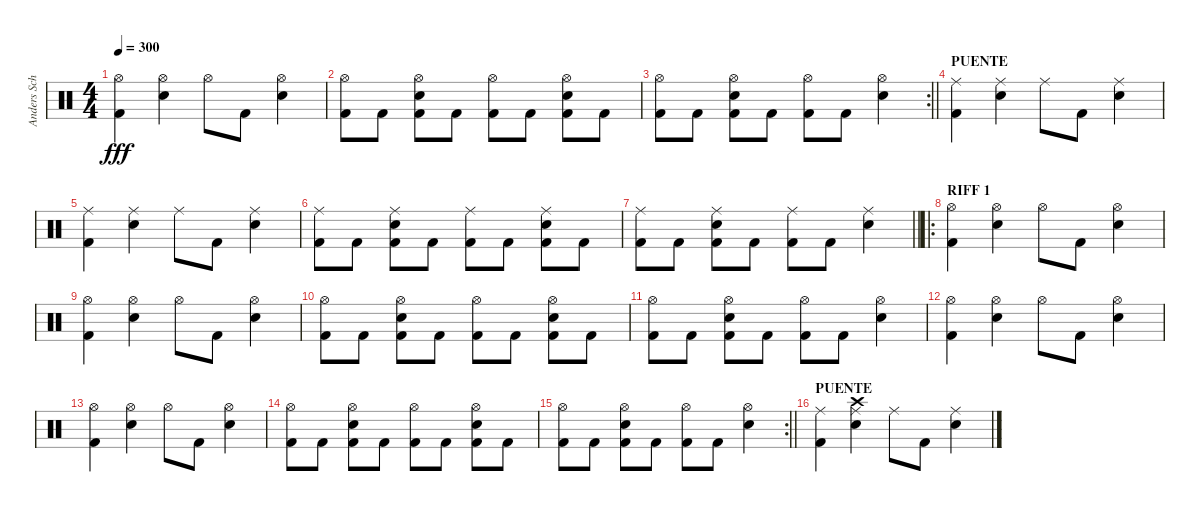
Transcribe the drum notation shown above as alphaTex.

\track ("Anders Schultz" "Anders Sch") {instrument percussion}
\staff {score}
\articulation defaults
\ts (4 4)
\tempo 300
\clef neutral
\ks c
("Hi-Hat (open)" "Kick (hit) 2").4{dy fff} ("Hi-Hat (open)" "Snare (hit) 2").4 "Hi-Hat (open)".8 "Kick (hit) 2".8 ("Hi-Hat (open)" "Snare (hit) 2").4 |
("Hi-Hat (open)" "Kick (hit) 2").8 "Kick (hit) 2".8 ("Hi-Hat (open)" "Snare (hit) 2" "Kick (hit) 2").8 "Kick (hit) 2".8 ("Hi-Hat (open)" "Kick (hit) 2").8 "Kick (hit) 2".8 ("Hi-Hat (open)" "Snare (hit) 2" "Kick (hit) 2").8 "Kick (hit) 2".8 |
\rc 2
\barLineRight lightlight
("Hi-Hat (open)" "Kick (hit) 2").8 "Kick (hit) 2".8 ("Hi-Hat (open)" "Snare (hit) 2" "Kick (hit) 2").8 "Kick (hit) 2".8 ("Hi-Hat (open)" "Kick (hit) 2").8 "Kick (hit) 2".8 ("Hi-Hat (open)" "Snare (hit) 2").4 |
\section ("" "PUENTE")
("Ride (middle)" "Kick (hit) 2").4 ("Ride (middle)" "Snare (hit) 2").4 "Ride (middle)".8 "Kick (hit) 2".8 ("Ride (middle)" "Snare (hit) 2").4 |
("Ride (middle)" "Kick (hit) 2").4 ("Ride (middle)" "Snare (hit) 2").4 "Ride (middle)".8 "Kick (hit) 2".8 ("Ride (middle)" "Snare (hit) 2").4 |
("Ride (middle)" "Kick (hit) 2").8 "Kick (hit) 2".8 ("Ride (middle)" "Snare (hit) 2" "Kick (hit) 2").8 "Kick (hit) 2".8 ("Ride (middle)" "Kick (hit) 2").8 "Kick (hit) 2".8 ("Ride (middle)" "Snare (hit) 2" "Kick (hit) 2").8 "Kick (hit) 2".8 |
\barLineRight lightlight
("Ride (middle)" "Kick (hit) 2").8 "Kick (hit) 2".8 ("Ride (middle)" "Snare (hit) 2" "Kick (hit) 2").8 "Kick (hit) 2".8 ("Ride (middle)" "Kick (hit) 2").8 "Kick (hit) 2".8 ("Ride (middle)" "Snare (hit) 2").4 |
\ro
\section ("" "RIFF 1")
("Hi-Hat (open)" "Kick (hit) 2").4 ("Hi-Hat (open)" "Snare (hit) 2").4 "Hi-Hat (open)".8 "Kick (hit) 2".8 ("Hi-Hat (open)" "Snare (hit) 2").4 |
("Hi-Hat (open)" "Kick (hit) 2").4 ("Hi-Hat (open)" "Snare (hit) 2").4 "Hi-Hat (open)".8 "Kick (hit) 2".8 ("Hi-Hat (open)" "Snare (hit) 2").4 |
("Hi-Hat (open)" "Kick (hit) 2").8 "Kick (hit) 2".8 ("Hi-Hat (open)" "Snare (hit) 2" "Kick (hit) 2").8 "Kick (hit) 2".8 ("Hi-Hat (open)" "Kick (hit) 2").8 "Kick (hit) 2".8 ("Hi-Hat (open)" "Snare (hit) 2" "Kick (hit) 2").8 "Kick (hit) 2".8 |
("Hi-Hat (open)" "Kick (hit) 2").8 "Kick (hit) 2".8 ("Hi-Hat (open)" "Snare (hit) 2" "Kick (hit) 2").8 "Kick (hit) 2".8 ("Hi-Hat (open)" "Kick (hit) 2").8 "Kick (hit) 2".8 ("Hi-Hat (open)" "Snare (hit) 2").4 |
("Hi-Hat (open)" "Kick (hit) 2").4 ("Hi-Hat (open)" "Snare (hit) 2").4 "Hi-Hat (open)".8 "Kick (hit) 2".8 ("Hi-Hat (open)" "Snare (hit) 2").4 |
("Hi-Hat (open)" "Kick (hit) 2").4 ("Hi-Hat (open)" "Snare (hit) 2").4 "Hi-Hat (open)".8 "Kick (hit) 2".8 ("Hi-Hat (open)" "Snare (hit) 2").4 |
("Hi-Hat (open)" "Kick (hit) 2").8 "Kick (hit) 2".8 ("Hi-Hat (open)" "Snare (hit) 2" "Kick (hit) 2").8 "Kick (hit) 2".8 ("Hi-Hat (open)" "Kick (hit) 2").8 "Kick (hit) 2".8 ("Hi-Hat (open)" "Snare (hit) 2" "Kick (hit) 2").8 "Kick (hit) 2".8 |
\rc 2
\barLineRight lightlight
("Hi-Hat (open)" "Kick (hit) 2").8 "Kick (hit) 2".8 ("Hi-Hat (open)" "Snare (hit) 2" "Kick (hit) 2").8 "Kick (hit) 2".8 ("Hi-Hat (open)" "Kick (hit) 2").8 "Kick (hit) 2".8 ("Hi-Hat (open)" "Snare (hit) 2").4 |
\section ("" "PUENTE")
("Ride (middle)" "Kick (hit) 2").4 ("Ride (middle)" "Crash high (hit)" "Snare (hit) 2").4 "Ride (middle)".8 "Kick (hit) 2".8 ("Ride (middle)" "Snare (hit) 2").4
